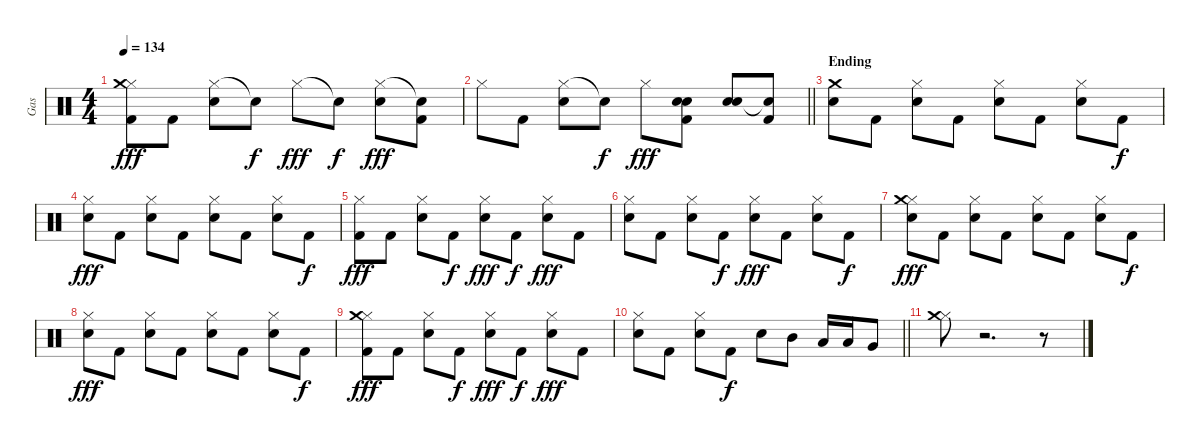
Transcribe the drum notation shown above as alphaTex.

\track ("Gas" "Gas") {instrument percussion}
\staff {score}
\articulation defaults
\ts (4 4)
\tempo 134
\clef neutral
\ks c
("Hi-Hat (closed)" "Crash medium (hit)" "Kick (hit) 2").8{dy fff} "Kick (hit) 2".8 ("Hi-Hat (closed)" "Snare (hit) 2").8 "Snare (hit)"{t}.8{dy f} "Hi-Hat (closed)".8{dy fff} "Snare (hit)"{t}.8{dy f} ("Hi-Hat (closed)" "Snare (hit) 2").8{dy fff} ("Snare (hit)"{t} "Kick (hit) 2").8 |
\barLineRight lightlight "Hi-Hat (closed)".8 "Kick (hit) 2".8
("Hi-Hat (closed)" "Snare (hit) 2").8 "Snare (hit)"{t}.8{dy f} "Hi-Hat (closed)".8{dy fff} ("Snare (hit) 2" "Snare (hit) 2" "Kick (hit) 2").8 ("Snare (hit) 2" "Snare (hit) 2").8 ("Snare (hit)"{t} "Kick (hit) 2").8 |
\section ("" "Ending")
("Crash medium (hit)" "Snare (hit) 2").8 "Kick (hit) 2".8 ("Hi-Hat (closed)" "Snare (hit) 2").8 "Kick (hit) 2".8 ("Hi-Hat (closed)" "Snare (hit) 2").8 "Kick (hit) 2".8 ("Hi-Hat (closed)" "Snare (hit) 2").8 "Kick (hit) 2".8{dy f} |
("Hi-Hat (closed)" "Snare (hit) 2").8{dy fff} "Kick (hit) 2".8 ("Hi-Hat (closed)" "Snare (hit) 2").8 "Kick (hit) 2".8 ("Hi-Hat (closed)" "Snare (hit) 2").8 "Kick (hit) 2".8 ("Hi-Hat (closed)" "Snare (hit) 2").8 "Kick (hit) 2".8{dy f} |
("Hi-Hat (closed)" "Kick (hit) 2").8{dy fff} "Kick (hit) 2".8 ("Hi-Hat (closed)" "Snare (hit) 2").8 "Kick (hit) 2".8{dy f} ("Hi-Hat (closed)" "Snare (hit) 2").8{dy fff} "Kick (hit) 2".8{dy f} ("Hi-Hat (closed)" "Snare (hit) 2").8{dy fff} "Kick (hit) 2".8 |
("Hi-Hat (closed)" "Snare (hit) 2").8 "Kick (hit) 2".8 ("Hi-Hat (closed)" "Snare (hit) 2").8 "Kick (hit) 2".8{dy f} ("Hi-Hat (closed)" "Snare (hit) 2").8{dy fff} "Kick (hit) 2".8 ("Hi-Hat (closed)" "Snare (hit) 2").8 "Kick (hit) 2".8{dy f} |
("Hi-Hat (closed)" "Crash medium (hit)" "Snare (hit) 2").8{dy fff} "Kick (hit) 2".8 ("Hi-Hat (closed)" "Snare (hit) 2").8 "Kick (hit) 2".8 ("Hi-Hat (closed)" "Snare (hit) 2").8 "Kick (hit) 2".8 ("Hi-Hat (closed)" "Snare (hit) 2").8 "Kick (hit) 2".8{dy f} |
("Hi-Hat (closed)" "Snare (hit) 2").8{dy fff} "Kick (hit) 2".8 ("Hi-Hat (closed)" "Snare (hit) 2").8 "Kick (hit) 2".8 ("Hi-Hat (closed)" "Snare (hit) 2").8 "Kick (hit) 2".8 ("Hi-Hat (closed)" "Snare (hit) 2").8 "Kick (hit) 2".8{dy f} |
("Hi-Hat (closed)" "Crash medium (hit)" "Kick (hit) 2").8{dy fff} "Kick (hit) 2".8 ("Hi-Hat (closed)" "Snare (hit) 2").8 "Kick (hit) 2".8{dy f} ("Hi-Hat (closed)" "Snare (hit) 2").8{dy fff} "Kick (hit) 2".8{dy f} ("Hi-Hat (closed)" "Snare (hit) 2").8{dy fff} "Kick (hit) 2".8 |
\barLineRight lightlight
("Hi-Hat (closed)" "Snare (hit) 2").8 "Kick (hit) 2".8 ("Hi-Hat (closed)" "Snare (hit) 2").8 "Kick (hit) 2".8{dy f} "Snare (hit) 2".8 "Mid Tom (hit)".8 "Low Tom (hit)".16 "Low Tom (hit)".16 "Very Low Tom (hit)".8 |
("Hi-Hat (closed)" "Crash medium (hit)").8 r.2{d} r.8
